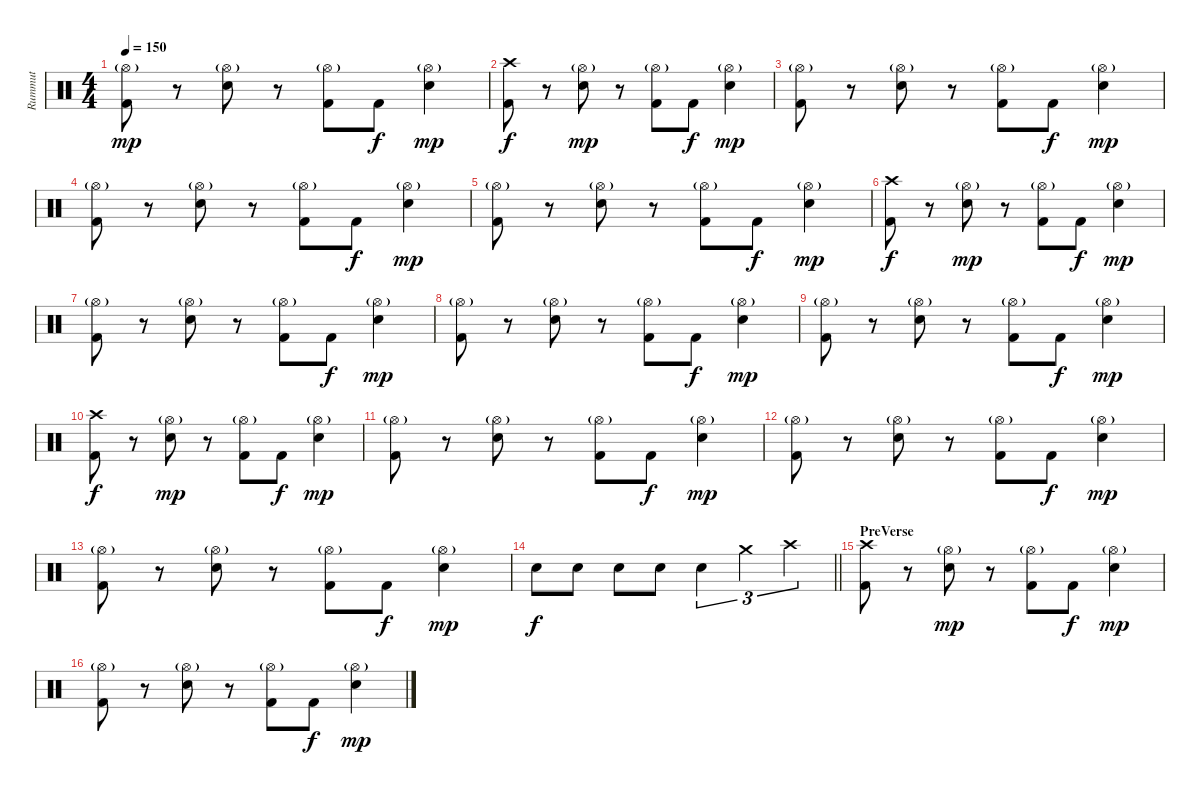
\track ("Rummut" "Rummut") {instrument percussion bank 69}
\staff {score}
\articulation defaults
\ts (4 4)
\tempo 150
\clef neutral
\ks c
("Hi-Hat (open)"{g} "Kick (hit) 2").8{dy mp} r.8 ("Hi-Hat (open)"{g} "Snare (hit) 2").8 r.8 ("Hi-Hat (open)"{g} "Kick (hit) 2").8 "Kick (hit) 2".8{dy f} ("Hi-Hat (open)"{g} "Snare (hit) 2").4{dy mp} |
("Crash high (hit)" "Kick (hit) 2").8{dy f} r.8 ("Hi-Hat (open)"{g} "Snare (hit) 2").8{dy mp} r.8 ("Hi-Hat (open)"{g} "Kick (hit) 2").8 "Kick (hit) 2".8{dy f} ("Hi-Hat (open)"{g} "Snare (hit) 2").4{dy mp} |
("Hi-Hat (open)"{g} "Kick (hit) 2").8 r.8 ("Hi-Hat (open)"{g} "Snare (hit) 2").8 r.8 ("Hi-Hat (open)"{g} "Kick (hit) 2").8 "Kick (hit) 2".8{dy f} ("Hi-Hat (open)"{g} "Snare (hit) 2").4{dy mp} |
("Hi-Hat (open)"{g} "Kick (hit) 2").8 r.8 ("Hi-Hat (open)"{g} "Snare (hit) 2").8 r.8 ("Hi-Hat (open)"{g} "Kick (hit) 2").8 "Kick (hit) 2".8{dy f} ("Hi-Hat (open)"{g} "Snare (hit) 2").4{dy mp} |
("Hi-Hat (open)"{g} "Kick (hit) 2").8 r.8 ("Hi-Hat (open)"{g} "Snare (hit) 2").8 r.8 ("Hi-Hat (open)"{g} "Kick (hit) 2").8 "Kick (hit) 2".8{dy f} ("Hi-Hat (open)"{g} "Snare (hit) 2").4{dy mp} |
("Crash high (hit)" "Kick (hit) 2").8{dy f} r.8 ("Hi-Hat (open)"{g} "Snare (hit) 2").8{dy mp} r.8 ("Hi-Hat (open)"{g} "Kick (hit) 2").8 "Kick (hit) 2".8{dy f} ("Hi-Hat (open)"{g} "Snare (hit) 2").4{dy mp} |
("Hi-Hat (open)"{g} "Kick (hit) 2").8 r.8 ("Hi-Hat (open)"{g} "Snare (hit) 2").8 r.8 ("Hi-Hat (open)"{g} "Kick (hit) 2").8 "Kick (hit) 2".8{dy f} ("Hi-Hat (open)"{g} "Snare (hit) 2").4{dy mp} |
("Hi-Hat (open)"{g} "Kick (hit) 2").8 r.8 ("Hi-Hat (open)"{g} "Snare (hit) 2").8 r.8 ("Hi-Hat (open)"{g} "Kick (hit) 2").8 "Kick (hit) 2".8{dy f} ("Hi-Hat (open)"{g} "Snare (hit) 2").4{dy mp} |
("Hi-Hat (open)"{g} "Kick (hit) 2").8 r.8 ("Hi-Hat (open)"{g} "Snare (hit) 2").8 r.8 ("Hi-Hat (open)"{g} "Kick (hit) 2").8 "Kick (hit) 2".8{dy f} ("Hi-Hat (open)"{g} "Snare (hit) 2").4{dy mp} |
("Crash high (hit)" "Kick (hit) 2").8{dy f} r.8 ("Hi-Hat (open)"{g} "Snare (hit) 2").8{dy mp} r.8 ("Hi-Hat (open)"{g} "Kick (hit) 2").8 "Kick (hit) 2".8{dy f} ("Hi-Hat (open)"{g} "Snare (hit) 2").4{dy mp} |
("Hi-Hat (open)"{g} "Kick (hit) 2").8 r.8 ("Hi-Hat (open)"{g} "Snare (hit) 2").8 r.8 ("Hi-Hat (open)"{g} "Kick (hit) 2").8 "Kick (hit) 2".8{dy f} ("Hi-Hat (open)"{g} "Snare (hit) 2").4{dy mp} |
("Hi-Hat (open)"{g} "Kick (hit) 2").8 r.8 ("Hi-Hat (open)"{g} "Snare (hit) 2").8 r.8 ("Hi-Hat (open)"{g} "Kick (hit) 2").8 "Kick (hit) 2".8{dy f} ("Hi-Hat (open)"{g} "Snare (hit) 2").4{dy mp} |
("Hi-Hat (open)"{g} "Kick (hit) 2").8 r.8 ("Hi-Hat (open)"{g} "Snare (hit) 2").8 r.8 ("Hi-Hat (open)"{g} "Kick (hit) 2").8 "Kick (hit) 2".8{dy f} ("Hi-Hat (open)"{g} "Snare (hit) 2").4{dy mp} |
\barLineRight lightlight "Snare (hit) 2".8{dy f} "Snare (hit) 2".8 "Snare (hit) 2".8 "Snare (hit) 2".8 "Snare (hit) 2".4{tu (3 2)} "Crash medium (hit)".4{tu (3 2)} "Crash high (hit)".4{tu (3 2)}
|
\section ("" "PreVerse")
("Crash high (hit)" "Kick (hit) 2").8 r.8 ("Hi-Hat (open)"{g} "Snare (hit) 2").8{dy mp} r.8 ("Hi-Hat (open)"{g} "Kick (hit) 2").8 "Kick (hit) 2".8{dy f} ("Hi-Hat (open)"{g} "Snare (hit) 2").4{dy mp} |
("Hi-Hat (open)"{g} "Kick (hit) 2").8 r.8 ("Hi-Hat (open)"{g} "Snare (hit) 2").8 r.8 ("Hi-Hat (open)"{g} "Kick (hit) 2").8 "Kick (hit) 2".8{dy f} ("Hi-Hat (open)"{g} "Snare (hit) 2").4{dy mp}
